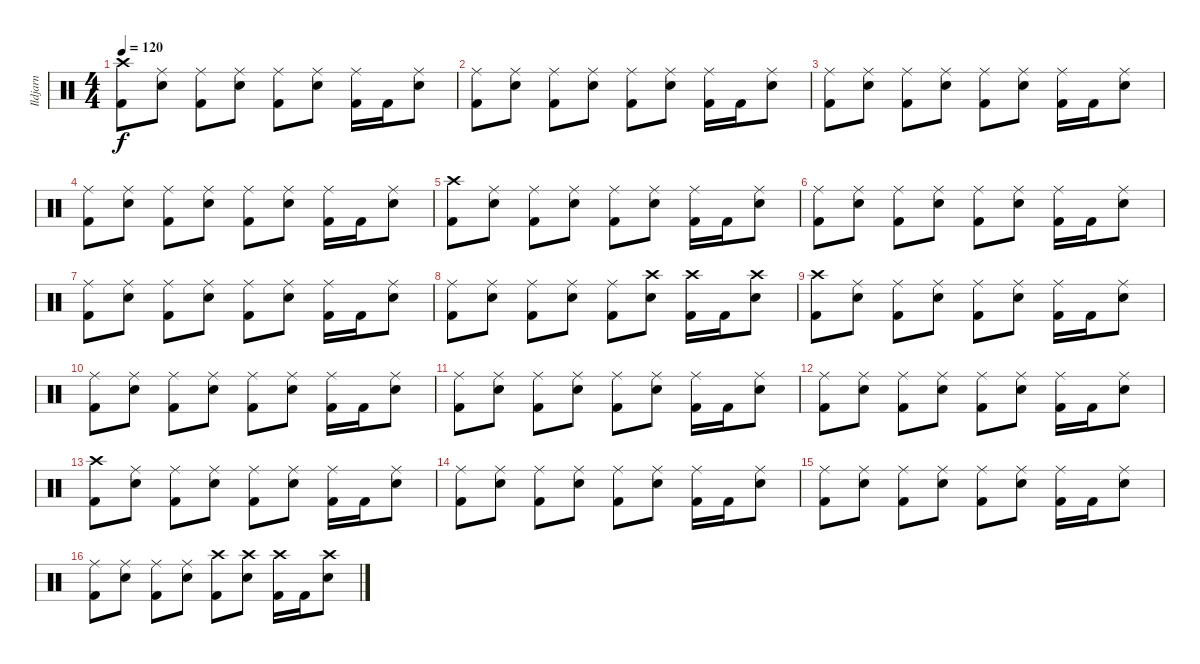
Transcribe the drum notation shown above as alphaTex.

\track ("Ildjarn" "Ildjarn") {instrument percussion}
\staff {score}
\articulation defaults
\ts (4 4)
\tempo 120
\clef neutral
\ks c
("Crash high (hit)" "Kick (hit) 2").8{dy f} ("Ride (middle)" "Snare (hit) 2").8 ("Ride (middle)" "Kick (hit) 2").8 ("Ride (middle)" "Snare (hit) 2").8 ("Ride (middle)" "Kick (hit) 2").8 ("Ride (middle)" "Snare (hit) 2").8 ("Ride (middle)" "Kick (hit) 2").16 "Kick (hit) 2".16 ("Ride (middle)" "Snare (hit) 2").8 |
("Ride (middle)" "Kick (hit) 2").8 ("Ride (middle)" "Snare (hit) 2").8 ("Ride (middle)" "Kick (hit) 2").8 ("Ride (middle)" "Snare (hit) 2").8 ("Ride (middle)" "Kick (hit) 2").8 ("Ride (middle)" "Snare (hit) 2").8 ("Ride (middle)" "Kick (hit) 2").16 "Kick (hit) 2".16 ("Ride (middle)" "Snare (hit) 2").8 |
("Ride (middle)" "Kick (hit) 2").8 ("Ride (middle)" "Snare (hit) 2").8 ("Ride (middle)" "Kick (hit) 2").8 ("Ride (middle)" "Snare (hit) 2").8 ("Ride (middle)" "Kick (hit) 2").8 ("Ride (middle)" "Snare (hit) 2").8 ("Ride (middle)" "Kick (hit) 2").16 "Kick (hit) 2".16 ("Ride (middle)" "Snare (hit) 2").8 |
("Ride (middle)" "Kick (hit) 2").8 ("Ride (middle)" "Snare (hit) 2").8 ("Ride (middle)" "Kick (hit) 2").8 ("Ride (middle)" "Snare (hit) 2").8 ("Ride (middle)" "Kick (hit) 2").8 ("Ride (middle)" "Snare (hit) 2").8 ("Ride (middle)" "Kick (hit) 2").16 "Kick (hit) 2".16 ("Ride (middle)" "Snare (hit) 2").8 |
("Crash high (hit)" "Kick (hit) 2").8 ("Ride (middle)" "Snare (hit) 2").8 ("Ride (middle)" "Kick (hit) 2").8 ("Ride (middle)" "Snare (hit) 2").8 ("Ride (middle)" "Kick (hit) 2").8 ("Ride (middle)" "Snare (hit) 2").8 ("Ride (middle)" "Kick (hit) 2").16 "Kick (hit) 2".16 ("Ride (middle)" "Snare (hit) 2").8 |
("Ride (middle)" "Kick (hit) 2").8 ("Ride (middle)" "Snare (hit) 2").8 ("Ride (middle)" "Kick (hit) 2").8 ("Ride (middle)" "Snare (hit) 2").8 ("Ride (middle)" "Kick (hit) 2").8 ("Ride (middle)" "Snare (hit) 2").8 ("Ride (middle)" "Kick (hit) 2").16 "Kick (hit) 2".16 ("Ride (middle)" "Snare (hit) 2").8 |
("Ride (middle)" "Kick (hit) 2").8 ("Ride (middle)" "Snare (hit) 2").8 ("Ride (middle)" "Kick (hit) 2").8 ("Ride (middle)" "Snare (hit) 2").8 ("Ride (middle)" "Kick (hit) 2").8 ("Ride (middle)" "Snare (hit) 2").8 ("Ride (middle)" "Kick (hit) 2").16 "Kick (hit) 2".16 ("Ride (middle)" "Snare (hit) 2").8 |
("Ride (middle)" "Kick (hit) 2").8 ("Ride (middle)" "Snare (hit) 2").8 ("Ride (middle)" "Kick (hit) 2").8 ("Ride (middle)" "Snare (hit) 2").8 ("Ride (middle)" "Kick (hit) 2").8 ("Crash high (hit)" "Snare (hit) 2").8 ("Crash high (hit)" "Kick (hit) 2").16 "Kick (hit) 2".16 ("Crash high (hit)" "Snare (hit) 2").8 |
("Crash high (hit)" "Kick (hit) 2").8 ("Ride (middle)" "Snare (hit) 2").8 ("Ride (middle)" "Kick (hit) 2").8 ("Ride (middle)" "Snare (hit) 2").8 ("Ride (middle)" "Kick (hit) 2").8 ("Ride (middle)" "Snare (hit) 2").8 ("Ride (middle)" "Kick (hit) 2").16 "Kick (hit) 2".16 ("Ride (middle)" "Snare (hit) 2").8 |
("Ride (middle)" "Kick (hit) 2").8 ("Ride (middle)" "Snare (hit) 2").8 ("Ride (middle)" "Kick (hit) 2").8 ("Ride (middle)" "Snare (hit) 2").8 ("Ride (middle)" "Kick (hit) 2").8 ("Ride (middle)" "Snare (hit) 2").8 ("Ride (middle)" "Kick (hit) 2").16 "Kick (hit) 2".16 ("Ride (middle)" "Snare (hit) 2").8 |
("Ride (middle)" "Kick (hit) 2").8 ("Ride (middle)" "Snare (hit) 2").8 ("Ride (middle)" "Kick (hit) 2").8 ("Ride (middle)" "Snare (hit) 2").8 ("Ride (middle)" "Kick (hit) 2").8 ("Ride (middle)" "Snare (hit) 2").8 ("Ride (middle)" "Kick (hit) 2").16 "Kick (hit) 2".16 ("Ride (middle)" "Snare (hit) 2").8 |
("Ride (middle)" "Kick (hit) 2").8 ("Ride (middle)" "Snare (hit) 2").8 ("Ride (middle)" "Kick (hit) 2").8 ("Ride (middle)" "Snare (hit) 2").8 ("Ride (middle)" "Kick (hit) 2").8 ("Ride (middle)" "Snare (hit) 2").8 ("Ride (middle)" "Kick (hit) 2").16 "Kick (hit) 2".16 ("Ride (middle)" "Snare (hit) 2").8 |
("Crash high (hit)" "Kick (hit) 2").8 ("Ride (middle)" "Snare (hit) 2").8 ("Ride (middle)" "Kick (hit) 2").8 ("Ride (middle)" "Snare (hit) 2").8 ("Ride (middle)" "Kick (hit) 2").8 ("Ride (middle)" "Snare (hit) 2").8 ("Ride (middle)" "Kick (hit) 2").16 "Kick (hit) 2".16 ("Ride (middle)" "Snare (hit) 2").8 |
("Ride (middle)" "Kick (hit) 2").8 ("Ride (middle)" "Snare (hit) 2").8 ("Ride (middle)" "Kick (hit) 2").8 ("Ride (middle)" "Snare (hit) 2").8 ("Ride (middle)" "Kick (hit) 2").8 ("Ride (middle)" "Snare (hit) 2").8 ("Ride (middle)" "Kick (hit) 2").16 "Kick (hit) 2".16 ("Ride (middle)" "Snare (hit) 2").8 |
("Ride (middle)" "Kick (hit) 2").8 ("Ride (middle)" "Snare (hit) 2").8 ("Ride (middle)" "Kick (hit) 2").8 ("Ride (middle)" "Snare (hit) 2").8 ("Ride (middle)" "Kick (hit) 2").8 ("Ride (middle)" "Snare (hit) 2").8 ("Ride (middle)" "Kick (hit) 2").16 "Kick (hit) 2".16 ("Ride (middle)" "Snare (hit) 2").8 |
("Ride (middle)" "Kick (hit) 2").8 ("Ride (middle)" "Snare (hit) 2").8 ("Ride (middle)" "Kick (hit) 2").8 ("Ride (middle)" "Snare (hit) 2").8 ("Crash high (hit)" "Kick (hit) 2").8 ("Crash high (hit)" "Snare (hit) 2").8 ("Crash high (hit)" "Kick (hit) 2").16 "Kick (hit) 2".16 ("Crash high (hit)" "Snare (hit) 2").8
